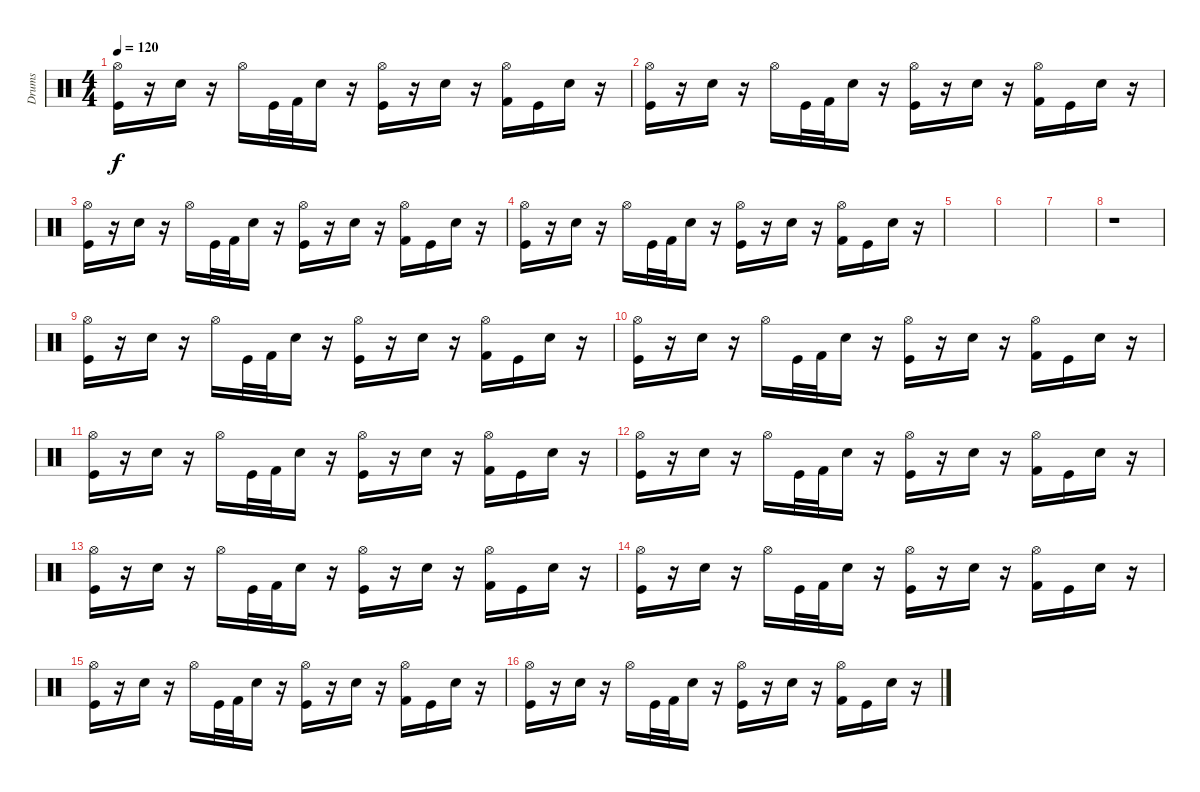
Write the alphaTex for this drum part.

\track ("Drums" "Drums") {instrument percussion}
\staff {score}
\articulation defaults
\ts (4 4)
\tempo 120
\clef neutral
\ks c
("Hi-Hat (open)" "Kick (hit)").16{dy f} r.16 "Electric Snare (hit)".16 r.16 "Hi-Hat (open)".16 "Kick (hit)".32 "Kick (hit) 2".32 "Electric Snare (hit)".16 r.16 ("Hi-Hat (open)" "Kick (hit)").16 r.16 "Electric Snare (hit)".16 r.16 ("Hi-Hat (open)" "Kick (hit) 2").16 "Kick (hit)".16 "Electric Snare (hit)".16 r.16 |
("Hi-Hat (open)" "Kick (hit)").16 r.16 "Electric Snare (hit)".16 r.16 "Hi-Hat (open)".16 "Kick (hit)".32 "Kick (hit) 2".32 "Electric Snare (hit)".16 r.16 ("Hi-Hat (open)" "Kick (hit)").16 r.16 "Electric Snare (hit)".16 r.16 ("Hi-Hat (open)" "Kick (hit) 2").16 "Kick (hit)".16 "Electric Snare (hit)".16 r.16 |
("Hi-Hat (open)" "Kick (hit)").16 r.16 "Electric Snare (hit)".16 r.16 "Hi-Hat (open)".16 "Kick (hit)".32 "Kick (hit) 2".32 "Electric Snare (hit)".16 r.16 ("Hi-Hat (open)" "Kick (hit)").16 r.16 "Electric Snare (hit)".16 r.16 ("Hi-Hat (open)" "Kick (hit) 2").16 "Kick (hit)".16 "Electric Snare (hit)".16 r.16 |
("Hi-Hat (open)" "Kick (hit)").16 r.16 "Electric Snare (hit)".16 r.16 "Hi-Hat (open)".16 "Kick (hit)".32 "Kick (hit) 2".32 "Electric Snare (hit)".16 r.16 ("Hi-Hat (open)" "Kick (hit)").16 r.16 "Electric Snare (hit)".16 r.16 ("Hi-Hat (open)" "Kick (hit) 2").16 "Kick (hit)".16 "Electric Snare (hit)".16 r.16 |
|
|
|
r.1 |
("Hi-Hat (open)" "Kick (hit)").16 r.16 "Electric Snare (hit)".16 r.16 "Hi-Hat (open)".16 "Kick (hit)".32 "Kick (hit) 2".32 "Electric Snare (hit)".16 r.16 ("Hi-Hat (open)" "Kick (hit)").16 r.16 "Electric Snare (hit)".16 r.16 ("Hi-Hat (open)" "Kick (hit) 2").16 "Kick (hit)".16 "Electric Snare (hit)".16 r.16 |
("Hi-Hat (open)" "Kick (hit)").16 r.16 "Electric Snare (hit)".16 r.16 "Hi-Hat (open)".16 "Kick (hit)".32 "Kick (hit) 2".32 "Electric Snare (hit)".16 r.16 ("Hi-Hat (open)" "Kick (hit)").16 r.16 "Electric Snare (hit)".16 r.16 ("Hi-Hat (open)" "Kick (hit) 2").16 "Kick (hit)".16 "Electric Snare (hit)".16 r.16 |
("Hi-Hat (open)" "Kick (hit)").16 r.16 "Electric Snare (hit)".16 r.16 "Hi-Hat (open)".16 "Kick (hit)".32 "Kick (hit) 2".32 "Electric Snare (hit)".16 r.16 ("Hi-Hat (open)" "Kick (hit)").16 r.16 "Electric Snare (hit)".16 r.16 ("Hi-Hat (open)" "Kick (hit) 2").16 "Kick (hit)".16 "Electric Snare (hit)".16 r.16 |
("Hi-Hat (open)" "Kick (hit)").16 r.16 "Electric Snare (hit)".16 r.16 "Hi-Hat (open)".16 "Kick (hit)".32 "Kick (hit) 2".32 "Electric Snare (hit)".16 r.16 ("Hi-Hat (open)" "Kick (hit)").16 r.16 "Electric Snare (hit)".16 r.16 ("Hi-Hat (open)" "Kick (hit) 2").16 "Kick (hit)".16 "Electric Snare (hit)".16 r.16 |
("Hi-Hat (open)" "Kick (hit)").16 r.16 "Electric Snare (hit)".16 r.16 "Hi-Hat (open)".16 "Kick (hit)".32 "Kick (hit) 2".32 "Electric Snare (hit)".16 r.16 ("Hi-Hat (open)" "Kick (hit)").16 r.16 "Electric Snare (hit)".16 r.16 ("Hi-Hat (open)" "Kick (hit) 2").16 "Kick (hit)".16 "Electric Snare (hit)".16 r.16 |
("Hi-Hat (open)" "Kick (hit)").16 r.16 "Electric Snare (hit)".16 r.16 "Hi-Hat (open)".16 "Kick (hit)".32 "Kick (hit) 2".32 "Electric Snare (hit)".16 r.16 ("Hi-Hat (open)" "Kick (hit)").16 r.16 "Electric Snare (hit)".16 r.16 ("Hi-Hat (open)" "Kick (hit) 2").16 "Kick (hit)".16 "Electric Snare (hit)".16 r.16 |
("Hi-Hat (open)" "Kick (hit)").16 r.16 "Electric Snare (hit)".16 r.16 "Hi-Hat (open)".16 "Kick (hit)".32 "Kick (hit) 2".32 "Electric Snare (hit)".16 r.16 ("Hi-Hat (open)" "Kick (hit)").16 r.16 "Electric Snare (hit)".16 r.16 ("Hi-Hat (open)" "Kick (hit) 2").16 "Kick (hit)".16 "Electric Snare (hit)".16 r.16 |
("Hi-Hat (open)" "Kick (hit)").16 r.16 "Electric Snare (hit)".16 r.16 "Hi-Hat (open)".16 "Kick (hit)".32 "Kick (hit) 2".32 "Electric Snare (hit)".16 r.16 ("Hi-Hat (open)" "Kick (hit)").16 r.16 "Electric Snare (hit)".16 r.16 ("Hi-Hat (open)" "Kick (hit) 2").16 "Kick (hit)".16 "Electric Snare (hit)".16 r.16
